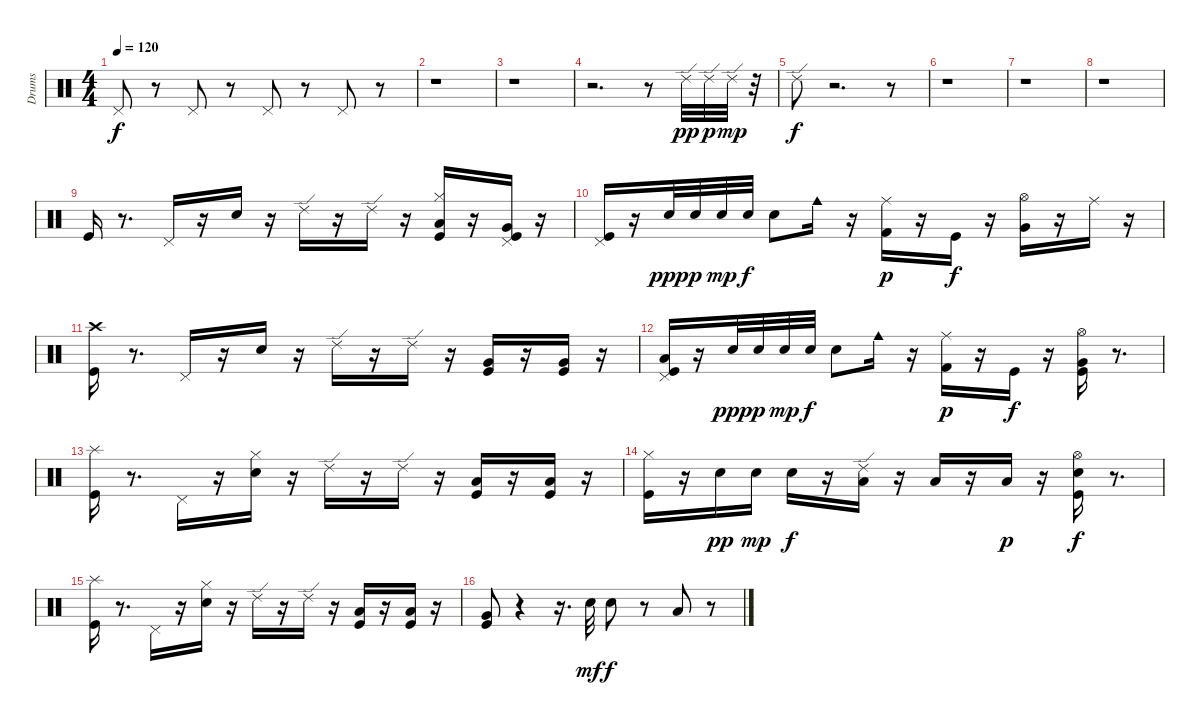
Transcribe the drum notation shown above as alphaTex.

\track ("Drums" "Drums") {instrument percussion}
\staff {score}
\articulation defaults
\ts (4 4)
\tempo 120
\clef neutral
\ks c "Pedal Hi-Hat (hit)".8{dy f}
r.8 "Pedal Hi-Hat (hit)".8 r.8 "Pedal Hi-Hat (hit)".8 r.8 "Pedal Hi-Hat (hit)".8 r.8 |
r.1 |
r.1 |
r.2{d} r.8 "Ride (edge) 2".32{dy pp} "Ride (edge) 2".32{dy p} "Ride (edge) 2".32{dy mp} r.32 |
"Ride (edge) 2".8{dy f} r.2{d} r.8 |
r.1 |
r.1 |
r.1 |
"Kick (hit)".16 r.8{d} "Pedal Hi-Hat (hit)".16 r.16 "Electric Snare (hit)".16 r.16 "Ride (edge) 2".16 r.16 "Ride (edge) 2".16 r.16 ("Hi-Hat (closed)" "Kick (hit)" "Low Tom (hit)").16 r.16 ("Pedal Hi-Hat (hit)" "Kick (hit)" "Very Low Tom (hit)").16 r.16 |
("Pedal Hi-Hat (hit)" "Kick (hit)").16 r.16 "Electric Snare (hit)".32{dy ppp} "Electric Snare (hit)".32{dy p} "Electric Snare (hit)".32{dy mp} "Electric Snare (hit)".32{dy f} "Electric Snare (hit)".8 "Cowbell medium (hit)".16 r.16 ("Kick (hit) 2" "Ride (middle)").16{dy p} r.16 "Kick (hit)".16{dy f} r.16 ("Hi-Hat (open)" "Very Low Tom (hit)").16 r.16 "Ride (middle)".16 r.16 |
("Crash high (hit)" "Kick (hit)").16 r.8{d} "Pedal Hi-Hat (hit)".16 r.16 "Electric Snare (hit)".16 r.16 "Ride (edge) 2".16 r.16 "Ride (edge) 2".16 r.16 ("Kick (hit)" "Very Low Tom (hit)").16 r.16 ("Kick (hit)" "Very Low Tom (hit)").16 r.16 |
("Low Floor Tom (hit)" "Pedal Hi-Hat (hit)" "Kick (hit)").16 r.16 "Electric Snare (hit)".32{dy ppp} "Electric Snare (hit)".32{dy p} "Electric Snare (hit)".32{dy mp} "Electric Snare (hit)".32{dy f} "Electric Snare (hit)".8 "Cowbell medium (hit)".16 r.16 ("Kick (hit) 2" "Ride (middle)").16{dy p} r.16 "Kick (hit)".16{dy f} r.16 ("Kick (hit)" "Hi-Hat (open)" "Very Low Tom (hit)").16 r.8{d} |
("Splash (hit)" "Kick (hit)").16 r.8{d} "Pedal Hi-Hat (hit)".16 r.16 ("Hi-Hat (closed)" "Electric Snare (hit)").16 r.16 "Ride (edge) 2".16 r.16 "Ride (edge) 2".16 r.16 ("Kick (hit)" "Low Tom (hit)").16 r.16 ("Kick (hit)" "Low Tom (hit)").16 r.16 |
("Hi-Hat (closed)" "Kick (hit)").16 r.16 "Electric Snare (hit)".16{dy pp} "Electric Snare (hit)".16{dy mp} "Electric Snare (hit)".16{dy f} r.16 ("Ride (edge) 2" "Low Tom (hit)").16 r.16 "Low Tom (hit)".16 r.16 "Low Floor Tom (hit)".16{dy p} r.16 ("Kick (hit)" "Hi-Hat (open)" "Electric Snare (hit)").16{dy f} r.8{d} |
("Splash (hit)" "Kick (hit)").16 r.8{d} "Pedal Hi-Hat (hit)".16 r.16 ("Hi-Hat (closed)" "Electric Snare (hit)").16 r.16 "Ride (edge) 2".16 r.16 "Ride (edge) 2".16 r.16 ("Kick (hit)" "Low Tom (hit)").16 r.16 ("Kick (hit)" "Low Tom (hit)").16 r.16 |
("Very Low Tom (hit)" "Kick (hit)").8 r.4 r.16{d} "Electric Snare (hit)".32{dy mf} "Electric Snare (hit)".8{dy f} r.8 "Low Tom (hit)".8 r.8
